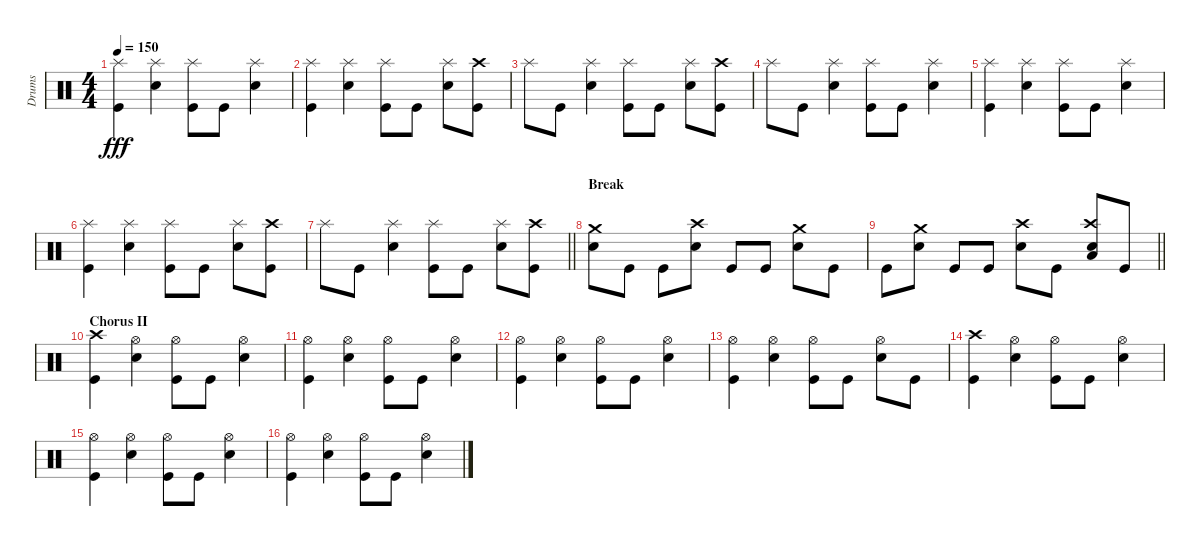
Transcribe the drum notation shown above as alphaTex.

\track ("Drums" "Drums") {instrument percussion}
\staff {score}
\articulation defaults
\ts (4 4)
\tempo 150
\clef neutral
\ks c
("Splash (hit)" "Kick (hit)").4{dy fff} ("Splash (hit)" "Snare (hit) 2").4 ("Splash (hit)" "Kick (hit)").8 "Kick (hit)".8 ("Splash (hit)" "Snare (hit) 2").4 |
("Splash (hit)" "Kick (hit)").4 ("Splash (hit)" "Snare (hit) 2").4 ("Splash (hit)" "Kick (hit)").8 "Kick (hit)".8 ("Splash (hit)" "Snare (hit) 2").8 ("Crash high (hit)" "Kick (hit)").8 |
"Splash (hit)".8 "Kick (hit)".8 ("Splash (hit)" "Snare (hit) 2").4 ("Splash (hit)" "Kick (hit)").8 "Kick (hit)".8 ("Splash (hit)" "Snare (hit) 2").8 ("Crash high (hit)" "Kick (hit)").8 |
"Splash (hit)".8 "Kick (hit)".8 ("Splash (hit)" "Snare (hit) 2").4 ("Splash (hit)" "Kick (hit)").8 "Kick (hit)".8 ("Splash (hit)" "Snare (hit) 2").4 |
("Splash (hit)" "Kick (hit)").4 ("Splash (hit)" "Snare (hit) 2").4 ("Splash (hit)" "Kick (hit)").8 "Kick (hit)".8 ("Splash (hit)" "Snare (hit) 2").4 |
("Splash (hit)" "Kick (hit)").4 ("Splash (hit)" "Snare (hit) 2").4 ("Splash (hit)" "Kick (hit)").8 "Kick (hit)".8 ("Splash (hit)" "Snare (hit) 2").8 ("Crash high (hit)" "Kick (hit)").8 |
\barLineRight lightlight "Splash (hit)".8 "Kick (hit)".8
("Splash (hit)" "Snare (hit) 2").4 ("Splash (hit)" "Kick (hit)").8 "Kick (hit)".8 ("Splash (hit)" "Snare (hit) 2").8 ("Crash high (hit)" "Kick (hit)").8 |
\section ("" "Break ")
("Crash medium (hit)" "Snare (hit) 2").8 "Kick (hit)".8 "Kick (hit)".8 ("Crash high (hit)" "Snare (hit) 2").8 "Kick (hit)".8 "Kick (hit)".8 ("Crash medium (hit)" "Snare (hit) 2").8 "Kick (hit)".8 |
\barLineRight lightlight "Kick (hit)".8
("Crash medium (hit)" "Snare (hit) 2").8 "Kick (hit)".8 "Kick (hit)".8 ("Crash high (hit)" "Snare (hit) 2").8 "Kick (hit)".8 ("Crash high (hit)" "Snare (hit) 2" "Low Tom (hit)").8 "Kick (hit)".8 |
\section ("" "Chorus II")
("Crash high (hit)" "Kick (hit)").4 ("Hi-Hat (open)" "Snare (hit) 2").4 ("Hi-Hat (open)" "Kick (hit)").8 "Kick (hit)".8 ("Hi-Hat (open)" "Snare (hit) 2").4 |
("Hi-Hat (open)" "Kick (hit)").4 ("Hi-Hat (open)" "Snare (hit) 2").4 ("Hi-Hat (open)" "Kick (hit)").8 "Kick (hit)".8 ("Hi-Hat (open)" "Snare (hit) 2").4 |
("Hi-Hat (open)" "Kick (hit)").4 ("Hi-Hat (open)" "Snare (hit) 2").4 ("Hi-Hat (open)" "Kick (hit)").8 "Kick (hit)".8 ("Hi-Hat (open)" "Snare (hit) 2").4 |
("Hi-Hat (open)" "Kick (hit)").4 ("Hi-Hat (open)" "Snare (hit) 2").4 ("Hi-Hat (open)" "Kick (hit)").8 "Kick (hit)".8 ("Hi-Hat (open)" "Snare (hit) 2").8 "Kick (hit)".8 |
("Crash high (hit)" "Kick (hit)").4 ("Hi-Hat (open)" "Snare (hit) 2").4 ("Hi-Hat (open)" "Kick (hit)").8 "Kick (hit)".8 ("Hi-Hat (open)" "Snare (hit) 2").4 |
("Hi-Hat (open)" "Kick (hit)").4 ("Hi-Hat (open)" "Snare (hit) 2").4 ("Hi-Hat (open)" "Kick (hit)").8 "Kick (hit)".8 ("Hi-Hat (open)" "Snare (hit) 2").4 |
("Hi-Hat (open)" "Kick (hit)").4 ("Hi-Hat (open)" "Snare (hit) 2").4 ("Hi-Hat (open)" "Kick (hit)").8 "Kick (hit)".8 ("Hi-Hat (open)" "Snare (hit) 2").4
